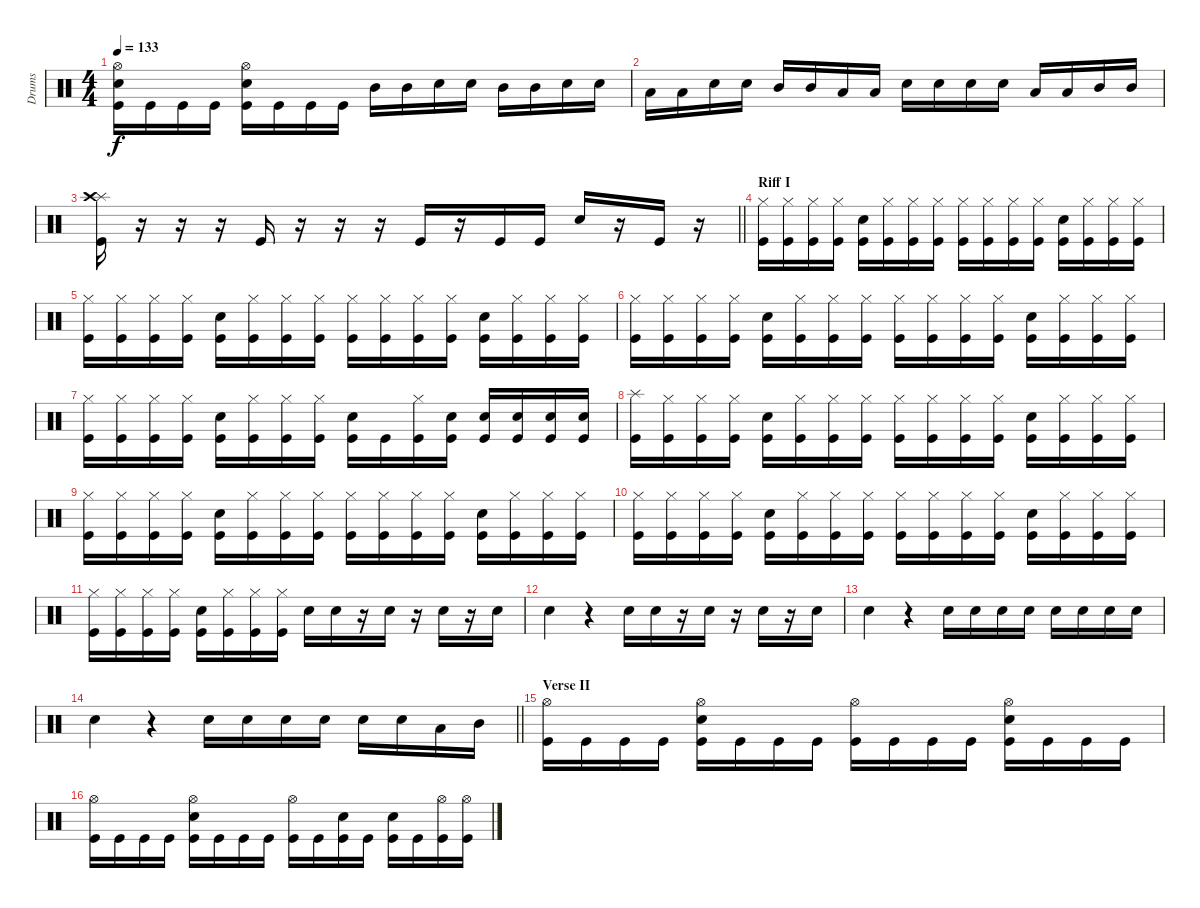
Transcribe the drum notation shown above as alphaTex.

\track ("Drums" "Drums") {instrument percussion}
\staff {score}
\articulation defaults
\ts (4 4)
\tempo 133
\clef neutral
\ks c
("Hi-Hat (open)" "Electric Snare (hit)" "Kick (hit)").16{dy f} "Kick (hit)".16 "Kick (hit)".16 "Kick (hit)".16 ("Hi-Hat (open)" "Electric Snare (hit)" "Kick (hit)").16 "Kick (hit)".16 "Kick (hit)".16 "Kick (hit)".16 "Mid Tom (hit)".16 "Mid Tom (hit)".16 "Electric Snare (hit)".16 "Electric Snare (hit)".16 "Mid Tom (hit)".16 "Mid Tom (hit)".16 "Electric Snare (hit)".16 "Electric Snare (hit)".16 |
"Low Tom (hit)".16 "Low Tom (hit)".16 "Electric Snare (hit)".16 "Electric Snare (hit)".16 "Mid Tom (hit)".16 "Mid Tom (hit)".16 "Low Tom (hit)".16 "Low Tom (hit)".16 "Electric Snare (hit)".16 "Electric Snare (hit)".16 "Electric Snare (hit)".16 "Electric Snare (hit)".16 "Low Tom (hit)".16 "Low Tom (hit)".16 "Mid Tom (hit)".16 "Mid Tom (hit)".16 |
\barLineRight lightlight
("Splash (hit)" "Crash high (hit)" "Kick (hit)").16 r.16 r.16 r.16 "Kick (hit)".16 r.16 r.16 r.16 "Kick (hit)".16 r.16 "Kick (hit)".16 "Kick (hit)".16 "Electric Snare (hit)".16 r.16 "Kick (hit)".16 r.16 |
\section ("" "Riff I")
("Hi-Hat (closed)" "Kick (hit)").16 ("Hi-Hat (closed)" "Kick (hit)").16 ("Hi-Hat (closed)" "Kick (hit)").16 ("Hi-Hat (closed)" "Kick (hit)").16 ("Electric Snare (hit)" "Kick (hit)").16 ("Hi-Hat (closed)" "Kick (hit)").16 ("Hi-Hat (closed)" "Kick (hit)").16 ("Hi-Hat (closed)" "Kick (hit)").16 ("Hi-Hat (closed)" "Kick (hit)").16 ("Hi-Hat (closed)" "Kick (hit)").16 ("Hi-Hat (closed)" "Kick (hit)").16 ("Hi-Hat (closed)" "Kick (hit)").16 ("Electric Snare (hit)" "Kick (hit)").16 ("Hi-Hat (closed)" "Kick (hit)").16 ("Hi-Hat (closed)" "Kick (hit)").16 ("Hi-Hat (closed)" "Kick (hit)").16 |
("Hi-Hat (closed)" "Kick (hit)").16 ("Hi-Hat (closed)" "Kick (hit)").16 ("Hi-Hat (closed)" "Kick (hit)").16 ("Hi-Hat (closed)" "Kick (hit)").16 ("Electric Snare (hit)" "Kick (hit)").16 ("Hi-Hat (closed)" "Kick (hit)").16 ("Hi-Hat (closed)" "Kick (hit)").16 ("Hi-Hat (closed)" "Kick (hit)").16 ("Hi-Hat (closed)" "Kick (hit)").16 ("Hi-Hat (closed)" "Kick (hit)").16 ("Hi-Hat (closed)" "Kick (hit)").16 ("Hi-Hat (closed)" "Kick (hit)").16 ("Electric Snare (hit)" "Kick (hit)").16 ("Hi-Hat (closed)" "Kick (hit)").16 ("Hi-Hat (closed)" "Kick (hit)").16 ("Hi-Hat (closed)" "Kick (hit)").16 |
("Hi-Hat (closed)" "Kick (hit)").16 ("Hi-Hat (closed)" "Kick (hit)").16 ("Hi-Hat (closed)" "Kick (hit)").16 ("Hi-Hat (closed)" "Kick (hit)").16 ("Electric Snare (hit)" "Kick (hit)").16 ("Hi-Hat (closed)" "Kick (hit)").16 ("Hi-Hat (closed)" "Kick (hit)").16 ("Hi-Hat (closed)" "Kick (hit)").16 ("Hi-Hat (closed)" "Kick (hit)").16 ("Hi-Hat (closed)" "Kick (hit)").16 ("Hi-Hat (closed)" "Kick (hit)").16 ("Hi-Hat (closed)" "Kick (hit)").16 ("Electric Snare (hit)" "Kick (hit)").16 ("Hi-Hat (closed)" "Kick (hit)").16 ("Hi-Hat (closed)" "Kick (hit)").16 ("Hi-Hat (closed)" "Kick (hit)").16 |
("Hi-Hat (closed)" "Kick (hit)").16 ("Hi-Hat (closed)" "Kick (hit)").16 ("Hi-Hat (closed)" "Kick (hit)").16 ("Hi-Hat (closed)" "Kick (hit)").16 ("Electric Snare (hit)" "Kick (hit)").16 ("Hi-Hat (closed)" "Kick (hit)").16 ("Hi-Hat (closed)" "Kick (hit)").16 ("Hi-Hat (closed)" "Kick (hit)").16 ("Electric Snare (hit)" "Kick (hit)").16 "Kick (hit)".16 ("Hi-Hat (closed)" "Kick (hit)").16 ("Electric Snare (hit)" "Kick (hit)").16 ("Electric Snare (hit)" "Kick (hit)").16 ("Electric Snare (hit)" "Kick (hit)").16 ("Electric Snare (hit)" "Kick (hit)").16 ("Electric Snare (hit)" "Kick (hit)").16 |
("Splash (hit)" "Kick (hit)").16 ("Hi-Hat (closed)" "Kick (hit)").16 ("Hi-Hat (closed)" "Kick (hit)").16 ("Hi-Hat (closed)" "Kick (hit)").16 ("Electric Snare (hit)" "Kick (hit)").16 ("Hi-Hat (closed)" "Kick (hit)").16 ("Hi-Hat (closed)" "Kick (hit)").16 ("Hi-Hat (closed)" "Kick (hit)").16 ("Hi-Hat (closed)" "Kick (hit)").16 ("Hi-Hat (closed)" "Kick (hit)").16 ("Hi-Hat (closed)" "Kick (hit)").16 ("Hi-Hat (closed)" "Kick (hit)").16 ("Electric Snare (hit)" "Kick (hit)").16 ("Hi-Hat (closed)" "Kick (hit)").16 ("Hi-Hat (closed)" "Kick (hit)").16 ("Hi-Hat (closed)" "Kick (hit)").16 |
("Hi-Hat (closed)" "Kick (hit)").16 ("Hi-Hat (closed)" "Kick (hit)").16 ("Hi-Hat (closed)" "Kick (hit)").16 ("Hi-Hat (closed)" "Kick (hit)").16 ("Electric Snare (hit)" "Kick (hit)").16 ("Hi-Hat (closed)" "Kick (hit)").16 ("Hi-Hat (closed)" "Kick (hit)").16 ("Hi-Hat (closed)" "Kick (hit)").16 ("Hi-Hat (closed)" "Kick (hit)").16 ("Hi-Hat (closed)" "Kick (hit)").16 ("Hi-Hat (closed)" "Kick (hit)").16 ("Hi-Hat (closed)" "Kick (hit)").16 ("Electric Snare (hit)" "Kick (hit)").16 ("Hi-Hat (closed)" "Kick (hit)").16 ("Hi-Hat (closed)" "Kick (hit)").16 ("Hi-Hat (closed)" "Kick (hit)").16 |
("Hi-Hat (closed)" "Kick (hit)").16 ("Hi-Hat (closed)" "Kick (hit)").16 ("Hi-Hat (closed)" "Kick (hit)").16 ("Hi-Hat (closed)" "Kick (hit)").16 ("Electric Snare (hit)" "Kick (hit)").16 ("Hi-Hat (closed)" "Kick (hit)").16 ("Hi-Hat (closed)" "Kick (hit)").16 ("Hi-Hat (closed)" "Kick (hit)").16 ("Hi-Hat (closed)" "Kick (hit)").16 ("Hi-Hat (closed)" "Kick (hit)").16 ("Hi-Hat (closed)" "Kick (hit)").16 ("Hi-Hat (closed)" "Kick (hit)").16 ("Electric Snare (hit)" "Kick (hit)").16 ("Hi-Hat (closed)" "Kick (hit)").16 ("Hi-Hat (closed)" "Kick (hit)").16 ("Hi-Hat (closed)" "Kick (hit)").16 |
("Hi-Hat (closed)" "Kick (hit)").16 ("Hi-Hat (closed)" "Kick (hit)").16 ("Hi-Hat (closed)" "Kick (hit)").16 ("Hi-Hat (closed)" "Kick (hit)").16 ("Electric Snare (hit)" "Kick (hit)").16 ("Hi-Hat (closed)" "Kick (hit)").16 ("Hi-Hat (closed)" "Kick (hit)").16 ("Hi-Hat (closed)" "Kick (hit)").16 "Electric Snare (hit)".16 "Electric Snare (hit)".16 r.16 "Electric Snare (hit)".16 r.16 "Electric Snare (hit)".16 r.16 "Electric Snare (hit)".16 |
"Electric Snare (hit)".4 r.4 "Electric Snare (hit)".16 "Electric Snare (hit)".16 r.16 "Electric Snare (hit)".16 r.16 "Electric Snare (hit)".16 r.16 "Electric Snare (hit)".16 |
"Electric Snare (hit)".4 r.4 "Electric Snare (hit)".16 "Electric Snare (hit)".16 "Electric Snare (hit)".16 "Electric Snare (hit)".16 "Electric Snare (hit)".16 "Electric Snare (hit)".16 "Electric Snare (hit)".16 "Electric Snare (hit)".16 |
\barLineRight lightlight "Electric Snare (hit)".4
r.4 "Electric Snare (hit)".16 "Electric Snare (hit)".16 "Electric Snare (hit)".16 "Electric Snare (hit)".16 "Electric Snare (hit)".16 "Electric Snare (hit)".16 "Low Tom (hit)".16 "Mid Tom (hit)".16 |
\section ("" "Verse II")
("Hi-Hat (open)" "Kick (hit)").16 "Kick (hit)".16 "Kick (hit)".16 "Kick (hit)".16 ("Hi-Hat (open)" "Electric Snare (hit)" "Kick (hit)").16 "Kick (hit)".16 "Kick (hit)".16 "Kick (hit)".16 ("Hi-Hat (open)" "Kick (hit)").16 "Kick (hit)".16 "Kick (hit)".16 "Kick (hit)".16 ("Hi-Hat (open)" "Electric Snare (hit)" "Kick (hit)").16 "Kick (hit)".16 "Kick (hit)".16 "Kick (hit)".16 |
("Hi-Hat (open)" "Kick (hit)").16 "Kick (hit)".16 "Kick (hit)".16 "Kick (hit)".16 ("Hi-Hat (open)" "Electric Snare (hit)" "Kick (hit)").16 "Kick (hit)".16 "Kick (hit)".16 "Kick (hit)".16 ("Hi-Hat (open)" "Kick (hit)").16 "Kick (hit)".16 ("Electric Snare (hit)" "Kick (hit)").16 "Kick (hit)".16 ("Electric Snare (hit)" "Kick (hit)").16 "Kick (hit)".16 ("Hi-Hat (open)" "Kick (hit)").16 ("Hi-Hat (open)" "Kick (hit)").16
